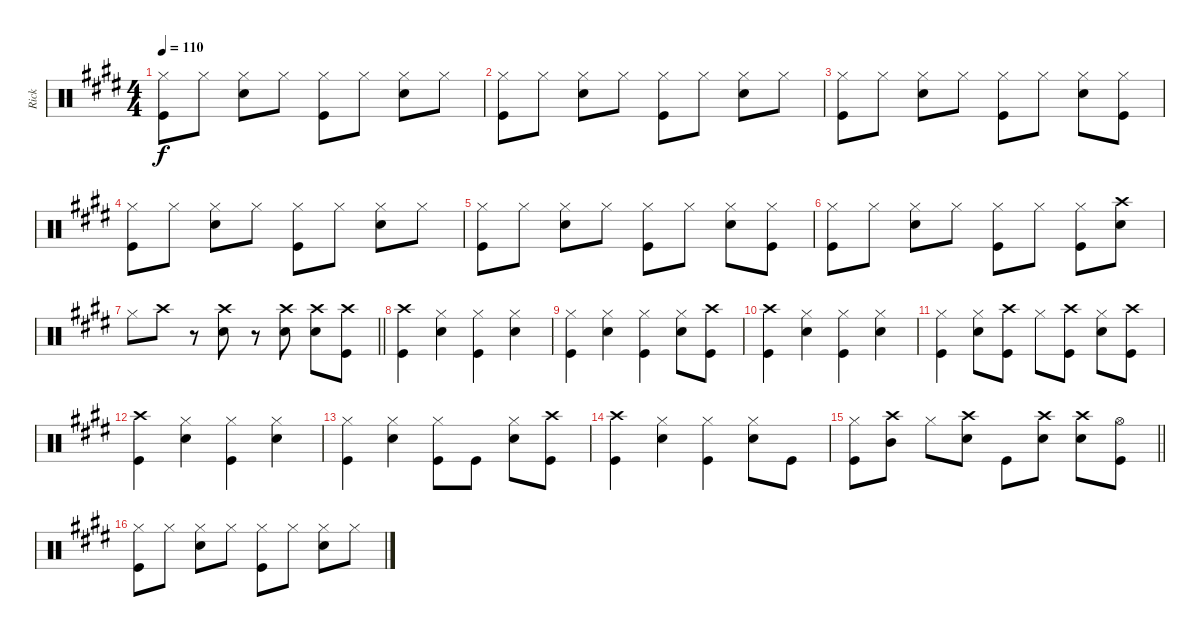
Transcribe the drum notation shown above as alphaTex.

\track ("Rick" "Rick") {instrument percussion}
\staff {score}
\articulation defaults
\ts (4 4)
\tempo 110
\clef neutral
\ks c#minor
("Hi-Hat (closed)" "Kick (hit)").8{dy f} "Hi-Hat (closed)".8 ("Hi-Hat (closed)" "Snare (hit) 2").8 "Hi-Hat (closed)".8 ("Hi-Hat (closed)" "Kick (hit)").8 "Hi-Hat (closed)".8 ("Hi-Hat (closed)" "Snare (hit) 2").8 "Hi-Hat (closed)".8 |
("Hi-Hat (closed)" "Kick (hit)").8 "Hi-Hat (closed)".8 ("Hi-Hat (closed)" "Snare (hit) 2").8 "Hi-Hat (closed)".8 ("Hi-Hat (closed)" "Kick (hit)").8 "Hi-Hat (closed)".8 ("Hi-Hat (closed)" "Snare (hit) 2").8 "Hi-Hat (closed)".8 |
("Hi-Hat (closed)" "Kick (hit)").8 "Hi-Hat (closed)".8 ("Hi-Hat (closed)" "Snare (hit) 2").8 "Hi-Hat (closed)".8 ("Hi-Hat (closed)" "Kick (hit)").8 "Hi-Hat (closed)".8 ("Hi-Hat (closed)" "Snare (hit) 2").8 ("Hi-Hat (closed)" "Kick (hit)").8 |
("Hi-Hat (closed)" "Kick (hit)").8 "Hi-Hat (closed)".8 ("Hi-Hat (closed)" "Snare (hit) 2").8 "Hi-Hat (closed)".8 ("Hi-Hat (closed)" "Kick (hit)").8 "Hi-Hat (closed)".8 ("Hi-Hat (closed)" "Snare (hit) 2").8 "Hi-Hat (closed)".8 |
("Hi-Hat (closed)" "Kick (hit)").8 "Hi-Hat (closed)".8 ("Hi-Hat (closed)" "Snare (hit) 2").8 "Hi-Hat (closed)".8 ("Hi-Hat (closed)" "Kick (hit)").8 "Hi-Hat (closed)".8 ("Hi-Hat (closed)" "Snare (hit) 2").8 ("Hi-Hat (closed)" "Kick (hit)").8 |
("Hi-Hat (closed)" "Kick (hit)").8 "Hi-Hat (closed)".8 ("Hi-Hat (closed)" "Snare (hit) 2").8 "Hi-Hat (closed)".8 ("Hi-Hat (closed)" "Kick (hit)").8 "Hi-Hat (closed)".8 ("Hi-Hat (closed)" "Kick (hit)").8 ("Crash high (hit)" "Snare (hit) 2").8 |
\barLineRight lightlight "Hi-Hat (closed)".8 "Crash high (hit)".8
r.8 ("Crash high (hit)" "Snare (hit) 2").8 r.8 ("Crash high (hit)" "Snare (hit) 2").8 ("Crash high (hit)" "Snare (hit) 2").8 ("Crash high (hit)" "Kick (hit)").8 |
("Crash high (hit)" "Kick (hit)").4 ("Hi-Hat (closed)" "Snare (hit) 2").4 ("Hi-Hat (closed)" "Kick (hit)").4 ("Hi-Hat (closed)" "Snare (hit) 2").4 |
("Hi-Hat (closed)" "Kick (hit)").4 ("Hi-Hat (closed)" "Snare (hit) 2").4 ("Hi-Hat (closed)" "Kick (hit)").4 ("Hi-Hat (closed)" "Snare (hit) 2").8 ("Crash high (hit)" "Kick (hit)").8 |
("Crash high (hit)" "Kick (hit)").4 ("Hi-Hat (closed)" "Snare (hit) 2").4 ("Hi-Hat (closed)" "Kick (hit)").4 ("Hi-Hat (closed)" "Snare (hit) 2").4 |
("Hi-Hat (closed)" "Kick (hit)").4 ("Hi-Hat (closed)" "Snare (hit) 2").8 ("Crash high (hit)" "Kick (hit)").8 "Hi-Hat (closed)".8 ("Crash high (hit)" "Kick (hit)").8 ("Hi-Hat (closed)" "Snare (hit) 2").8 ("Crash high (hit)" "Kick (hit)").8 |
("Crash high (hit)" "Kick (hit)").4 ("Hi-Hat (closed)" "Snare (hit) 2").4 ("Hi-Hat (closed)" "Kick (hit)").4 ("Hi-Hat (closed)" "Snare (hit) 2").4 |
("Hi-Hat (closed)" "Kick (hit)").4 ("Hi-Hat (closed)" "Snare (hit) 2").4 ("Hi-Hat (closed)" "Kick (hit)").8 "Kick (hit)".8 ("Hi-Hat (closed)" "Snare (hit) 2").8 ("Crash high (hit)" "Kick (hit)").8 |
("Crash high (hit)" "Kick (hit)").4 ("Hi-Hat (closed)" "Snare (hit) 2").4 ("Hi-Hat (closed)" "Kick (hit)").4 ("Hi-Hat (closed)" "Snare (hit) 2").8 "Kick (hit)".8 |
\barLineRight lightlight
("Hi-Hat (closed)" "Kick (hit)").8 ("Crash high (hit)" "Mid Tom (hit)").8 "Hi-Hat (closed)".8 ("Crash high (hit)" "Snare (hit) 2").8 "Kick (hit)".8 ("Crash high (hit)" "Snare (hit) 2").8 ("Crash high (hit)" "Snare (hit) 2").8 ("Hi-Hat (open)" "Kick (hit)").8 |
("Hi-Hat (closed)" "Kick (hit)").8 "Hi-Hat (closed)".8 ("Hi-Hat (closed)" "Snare (hit) 2").8 "Hi-Hat (closed)".8 ("Hi-Hat (closed)" "Kick (hit)").8 "Hi-Hat (closed)".8 ("Hi-Hat (closed)" "Snare (hit) 2").8 "Hi-Hat (closed)".8
